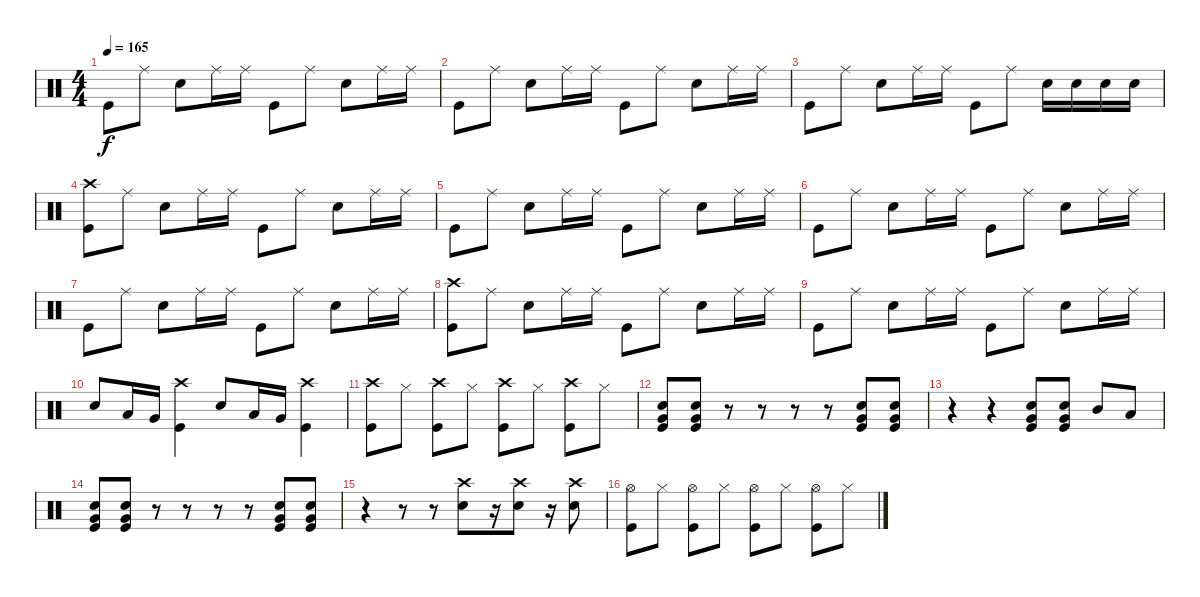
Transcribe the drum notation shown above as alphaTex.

\track "" {instrument percussion}
\staff {score}
\articulation defaults
\ts (4 4)
\tempo 165
\clef neutral
\ks c "Kick (hit)".8{dy f} "Ride (middle)".8 "Electric Snare (hit)".8 "Ride (middle)".16 "Ride (middle)".16 "Kick (hit)".8 "Ride (middle)".8 "Electric Snare (hit)".8 "Ride (middle)".16 "Ride (middle)".16
|
"Kick (hit)".8 "Ride (middle)".8 "Electric Snare (hit)".8 "Ride (middle)".16 "Ride (middle)".16 "Kick (hit)".8 "Ride (middle)".8 "Electric Snare (hit)".8 "Ride (middle)".16 "Ride (middle)".16 |
"Kick (hit)".8 "Ride (middle)".8 "Electric Snare (hit)".8 "Ride (middle)".16 "Ride (middle)".16 "Kick (hit)".8 "Ride (middle)".8 "Electric Snare (hit)".16 "Electric Snare (hit)".16 "Electric Snare (hit)".16 "Electric Snare (hit)".16 |
("Crash high (hit)" "Kick (hit)").8 "Ride (middle)".8 "Electric Snare (hit)".8 "Ride (middle)".16 "Ride (middle)".16 "Kick (hit)".8 "Ride (middle)".8 "Electric Snare (hit)".8 "Ride (middle)".16 "Ride (middle)".16 |
"Kick (hit)".8 "Ride (middle)".8 "Electric Snare (hit)".8 "Ride (middle)".16 "Ride (middle)".16 "Kick (hit)".8 "Ride (middle)".8 "Electric Snare (hit)".8 "Ride (middle)".16 "Ride (middle)".16 |
"Kick (hit)".8 "Ride (middle)".8 "Electric Snare (hit)".8 "Ride (middle)".16 "Ride (middle)".16 "Kick (hit)".8 "Ride (middle)".8 "Electric Snare (hit)".8 "Ride (middle)".16 "Ride (middle)".16 |
"Kick (hit)".8 "Ride (middle)".8 "Electric Snare (hit)".8 "Ride (middle)".16 "Ride (middle)".16 "Kick (hit)".8 "Ride (middle)".8 "Electric Snare (hit)".8 "Ride (middle)".16 "Ride (middle)".16 |
("Crash high (hit)" "Kick (hit)").8 "Ride (middle)".8 "Electric Snare (hit)".8 "Ride (middle)".16 "Ride (middle)".16 "Kick (hit)".8 "Ride (middle)".8 "Electric Snare (hit)".8 "Ride (middle)".16 "Ride (middle)".16 |
"Kick (hit)".8 "Ride (middle)".8 "Electric Snare (hit)".8 "Ride (middle)".16 "Ride (middle)".16 "Kick (hit)".8 "Ride (middle)".8 "Electric Snare (hit)".8 "Ride (middle)".16 "Ride (middle)".16 |
"Electric Snare (hit)".8 "Low Tom (hit)".16 "Very Low Tom (hit)".16 ("Crash high (hit)" "Kick (hit)").4 "Electric Snare (hit)".8 "Low Tom (hit)".16 "Very Low Tom (hit)".16 ("Crash high (hit)" "Kick (hit)").4 |
("Crash high (hit)" "Kick (hit)").8 "Hi-Hat (closed)".8 ("Crash high (hit)" "Kick (hit)").8 "Hi-Hat (closed)".8 ("Crash high (hit)" "Kick (hit)").8 "Hi-Hat (closed)".8 ("Crash high (hit)" "Kick (hit)").8 "Hi-Hat (closed)".8 |
("Electric Snare (hit)" "Very Low Tom (hit)" "Kick (hit)").8 ("Electric Snare (hit)" "Very Low Tom (hit)" "Kick (hit)").8 r.8 r.8 r.8 r.8 ("Electric Snare (hit)" "Very Low Tom (hit)" "Kick (hit)").8 ("Electric Snare (hit)" "Very Low Tom (hit)" "Kick (hit)").8 |
r.4 r.4 ("Electric Snare (hit)" "Very Low Tom (hit)" "Kick (hit)").8 ("Electric Snare (hit)" "Very Low Tom (hit)" "Kick (hit)").8 "Mid Tom (hit)".8 "Low Tom (hit)".8 |
("Electric Snare (hit)" "Very Low Tom (hit)" "Kick (hit)").8 ("Electric Snare (hit)" "Very Low Tom (hit)" "Kick (hit)").8 r.8 r.8 r.8 r.8 ("Electric Snare (hit)" "Very Low Tom (hit)" "Kick (hit)").8 ("Electric Snare (hit)" "Very Low Tom (hit)" "Kick (hit)").8 |
r.4 r.8 r.8 ("Crash high (hit)" "Electric Snare (hit)").8 r.16 ("Crash high (hit)" "Electric Snare (hit)").8 r.16 ("Crash high (hit)" "Electric Snare (hit)").8 |
("Hi-Hat (open)" "Kick (hit)").8 "Hi-Hat (closed)".8 ("Hi-Hat (open)" "Kick (hit)").8 "Hi-Hat (closed)".8 ("Hi-Hat (open)" "Kick (hit)").8 "Hi-Hat (closed)".8 ("Hi-Hat (open)" "Kick (hit)").8 "Hi-Hat (closed)".8
